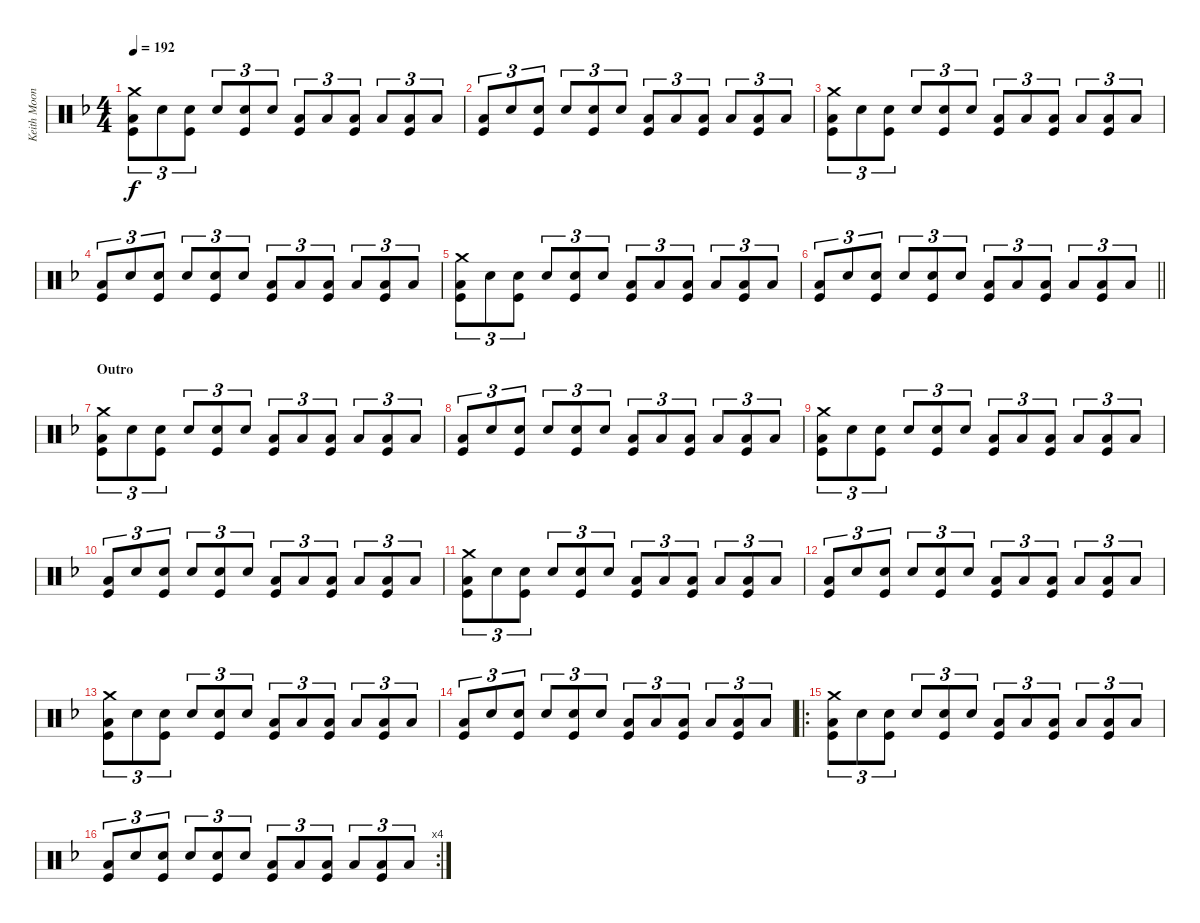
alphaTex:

\track ("Keith Moon - Drums" "Keith Moon") {instrument percussion}
\staff {score}
\articulation defaults
\ts (4 4)
\tempo 192
\clef neutral
\ks f
("Crash medium (hit)" "Low Floor Tom (hit)" "Kick (hit)").8{tu (3 2) dy f} "Electric Snare (hit)".8{tu (3 2)} ("Electric Snare (hit)" "Kick (hit)").8{tu (3 2)} "Electric Snare (hit)".8{tu (3 2)} ("Electric Snare (hit)" "Kick (hit)").8{tu (3 2)} "Electric Snare (hit)".8{tu (3 2)} ("Low Floor Tom (hit)" "Kick (hit)").8{tu (3 2)} "Low Floor Tom (hit)".8{tu (3 2)} ("Low Floor Tom (hit)" "Kick (hit)").8{tu (3 2)} "Low Floor Tom (hit)".8{tu (3 2)} ("Low Floor Tom (hit)" "Kick (hit)").8{tu (3 2)} "Low Floor Tom (hit)".8{tu (3 2)} |
("Low Floor Tom (hit)" "Kick (hit)").8{tu (3 2)} "Electric Snare (hit)".8{tu (3 2)} ("Electric Snare (hit)" "Kick (hit)").8{tu (3 2)} "Electric Snare (hit)".8{tu (3 2)} ("Electric Snare (hit)" "Kick (hit)").8{tu (3 2)} "Electric Snare (hit)".8{tu (3 2)} ("Low Floor Tom (hit)" "Kick (hit)").8{tu (3 2)} "Low Floor Tom (hit)".8{tu (3 2)} ("Low Floor Tom (hit)" "Kick (hit)").8{tu (3 2)} "Low Floor Tom (hit)".8{tu (3 2)} ("Low Floor Tom (hit)" "Kick (hit)").8{tu (3 2)} "Low Floor Tom (hit)".8{tu (3 2)} |
("Crash medium (hit)" "Low Floor Tom (hit)" "Kick (hit)").8{tu (3 2)} "Electric Snare (hit)".8{tu (3 2)} ("Electric Snare (hit)" "Kick (hit)").8{tu (3 2)} "Electric Snare (hit)".8{tu (3 2)} ("Electric Snare (hit)" "Kick (hit)").8{tu (3 2)} "Electric Snare (hit)".8{tu (3 2)} ("Low Floor Tom (hit)" "Kick (hit)").8{tu (3 2)} "Low Floor Tom (hit)".8{tu (3 2)} ("Low Floor Tom (hit)" "Kick (hit)").8{tu (3 2)} "Low Floor Tom (hit)".8{tu (3 2)} ("Low Floor Tom (hit)" "Kick (hit)").8{tu (3 2)} "Low Floor Tom (hit)".8{tu (3 2)} |
("Low Floor Tom (hit)" "Kick (hit)").8{tu (3 2)} "Electric Snare (hit)".8{tu (3 2)} ("Electric Snare (hit)" "Kick (hit)").8{tu (3 2)} "Electric Snare (hit)".8{tu (3 2)} ("Electric Snare (hit)" "Kick (hit)").8{tu (3 2)} "Electric Snare (hit)".8{tu (3 2)} ("Low Floor Tom (hit)" "Kick (hit)").8{tu (3 2)} "Low Floor Tom (hit)".8{tu (3 2)} ("Low Floor Tom (hit)" "Kick (hit)").8{tu (3 2)} "Low Floor Tom (hit)".8{tu (3 2)} ("Low Floor Tom (hit)" "Kick (hit)").8{tu (3 2)} "Low Floor Tom (hit)".8{tu (3 2)} |
("Crash medium (hit)" "Low Floor Tom (hit)" "Kick (hit)").8{tu (3 2)} "Electric Snare (hit)".8{tu (3 2)} ("Electric Snare (hit)" "Kick (hit)").8{tu (3 2)} "Electric Snare (hit)".8{tu (3 2)} ("Electric Snare (hit)" "Kick (hit)").8{tu (3 2)} "Electric Snare (hit)".8{tu (3 2)} ("Low Floor Tom (hit)" "Kick (hit)").8{tu (3 2)} "Low Floor Tom (hit)".8{tu (3 2)} ("Low Floor Tom (hit)" "Kick (hit)").8{tu (3 2)} "Low Floor Tom (hit)".8{tu (3 2)} ("Low Floor Tom (hit)" "Kick (hit)").8{tu (3 2)} "Low Floor Tom (hit)".8{tu (3 2)} |
\barLineRight lightlight
("Low Floor Tom (hit)" "Kick (hit)").8{tu (3 2)} "Electric Snare (hit)".8{tu (3 2)} ("Electric Snare (hit)" "Kick (hit)").8{tu (3 2)} "Electric Snare (hit)".8{tu (3 2)} ("Electric Snare (hit)" "Kick (hit)").8{tu (3 2)} "Electric Snare (hit)".8{tu (3 2)} ("Low Floor Tom (hit)" "Kick (hit)").8{tu (3 2)} "Low Floor Tom (hit)".8{tu (3 2)} ("Low Floor Tom (hit)" "Kick (hit)").8{tu (3 2)} "Low Floor Tom (hit)".8{tu (3 2)} ("Low Floor Tom (hit)" "Kick (hit)").8{tu (3 2)} "Low Floor Tom (hit)".8{tu (3 2)} |
\section ("" "Outro")
("Crash medium (hit)" "Low Floor Tom (hit)" "Kick (hit)").8{tu (3 2)} "Electric Snare (hit)".8{tu (3 2)} ("Electric Snare (hit)" "Kick (hit)").8{tu (3 2)} "Electric Snare (hit)".8{tu (3 2)} ("Electric Snare (hit)" "Kick (hit)").8{tu (3 2)} "Electric Snare (hit)".8{tu (3 2)} ("Low Floor Tom (hit)" "Kick (hit)").8{tu (3 2)} "Low Floor Tom (hit)".8{tu (3 2)} ("Low Floor Tom (hit)" "Kick (hit)").8{tu (3 2)} "Low Floor Tom (hit)".8{tu (3 2)} ("Low Floor Tom (hit)" "Kick (hit)").8{tu (3 2)} "Low Floor Tom (hit)".8{tu (3 2)} |
("Low Floor Tom (hit)" "Kick (hit)").8{tu (3 2)} "Electric Snare (hit)".8{tu (3 2)} ("Electric Snare (hit)" "Kick (hit)").8{tu (3 2)} "Electric Snare (hit)".8{tu (3 2)} ("Electric Snare (hit)" "Kick (hit)").8{tu (3 2)} "Electric Snare (hit)".8{tu (3 2)} ("Low Floor Tom (hit)" "Kick (hit)").8{tu (3 2)} "Low Floor Tom (hit)".8{tu (3 2)} ("Low Floor Tom (hit)" "Kick (hit)").8{tu (3 2)} "Low Floor Tom (hit)".8{tu (3 2)} ("Low Floor Tom (hit)" "Kick (hit)").8{tu (3 2)} "Low Floor Tom (hit)".8{tu (3 2)} |
("Crash medium (hit)" "Low Floor Tom (hit)" "Kick (hit)").8{tu (3 2)} "Electric Snare (hit)".8{tu (3 2)} ("Electric Snare (hit)" "Kick (hit)").8{tu (3 2)} "Electric Snare (hit)".8{tu (3 2)} ("Electric Snare (hit)" "Kick (hit)").8{tu (3 2)} "Electric Snare (hit)".8{tu (3 2)} ("Low Floor Tom (hit)" "Kick (hit)").8{tu (3 2)} "Low Floor Tom (hit)".8{tu (3 2)} ("Low Floor Tom (hit)" "Kick (hit)").8{tu (3 2)} "Low Floor Tom (hit)".8{tu (3 2)} ("Low Floor Tom (hit)" "Kick (hit)").8{tu (3 2)} "Low Floor Tom (hit)".8{tu (3 2)} |
("Low Floor Tom (hit)" "Kick (hit)").8{tu (3 2)} "Electric Snare (hit)".8{tu (3 2)} ("Electric Snare (hit)" "Kick (hit)").8{tu (3 2)} "Electric Snare (hit)".8{tu (3 2)} ("Electric Snare (hit)" "Kick (hit)").8{tu (3 2)} "Electric Snare (hit)".8{tu (3 2)} ("Low Floor Tom (hit)" "Kick (hit)").8{tu (3 2)} "Low Floor Tom (hit)".8{tu (3 2)} ("Low Floor Tom (hit)" "Kick (hit)").8{tu (3 2)} "Low Floor Tom (hit)".8{tu (3 2)} ("Low Floor Tom (hit)" "Kick (hit)").8{tu (3 2)} "Low Floor Tom (hit)".8{tu (3 2)} |
("Crash medium (hit)" "Low Floor Tom (hit)" "Kick (hit)").8{tu (3 2)} "Electric Snare (hit)".8{tu (3 2)} ("Electric Snare (hit)" "Kick (hit)").8{tu (3 2)} "Electric Snare (hit)".8{tu (3 2)} ("Electric Snare (hit)" "Kick (hit)").8{tu (3 2)} "Electric Snare (hit)".8{tu (3 2)} ("Low Floor Tom (hit)" "Kick (hit)").8{tu (3 2)} "Low Floor Tom (hit)".8{tu (3 2)} ("Low Floor Tom (hit)" "Kick (hit)").8{tu (3 2)} "Low Floor Tom (hit)".8{tu (3 2)} ("Low Floor Tom (hit)" "Kick (hit)").8{tu (3 2)} "Low Floor Tom (hit)".8{tu (3 2)} |
("Low Floor Tom (hit)" "Kick (hit)").8{tu (3 2)} "Electric Snare (hit)".8{tu (3 2)} ("Electric Snare (hit)" "Kick (hit)").8{tu (3 2)} "Electric Snare (hit)".8{tu (3 2)} ("Electric Snare (hit)" "Kick (hit)").8{tu (3 2)} "Electric Snare (hit)".8{tu (3 2)} ("Low Floor Tom (hit)" "Kick (hit)").8{tu (3 2)} "Low Floor Tom (hit)".8{tu (3 2)} ("Low Floor Tom (hit)" "Kick (hit)").8{tu (3 2)} "Low Floor Tom (hit)".8{tu (3 2)} ("Low Floor Tom (hit)" "Kick (hit)").8{tu (3 2)} "Low Floor Tom (hit)".8{tu (3 2)} |
("Crash medium (hit)" "Low Floor Tom (hit)" "Kick (hit)").8{tu (3 2)} "Electric Snare (hit)".8{tu (3 2)} ("Electric Snare (hit)" "Kick (hit)").8{tu (3 2)} "Electric Snare (hit)".8{tu (3 2)} ("Electric Snare (hit)" "Kick (hit)").8{tu (3 2)} "Electric Snare (hit)".8{tu (3 2)} ("Low Floor Tom (hit)" "Kick (hit)").8{tu (3 2)} "Low Floor Tom (hit)".8{tu (3 2)} ("Low Floor Tom (hit)" "Kick (hit)").8{tu (3 2)} "Low Floor Tom (hit)".8{tu (3 2)} ("Low Floor Tom (hit)" "Kick (hit)").8{tu (3 2)} "Low Floor Tom (hit)".8{tu (3 2)} |
("Low Floor Tom (hit)" "Kick (hit)").8{tu (3 2)} "Electric Snare (hit)".8{tu (3 2)} ("Electric Snare (hit)" "Kick (hit)").8{tu (3 2)} "Electric Snare (hit)".8{tu (3 2)} ("Electric Snare (hit)" "Kick (hit)").8{tu (3 2)} "Electric Snare (hit)".8{tu (3 2)} ("Low Floor Tom (hit)" "Kick (hit)").8{tu (3 2)} "Low Floor Tom (hit)".8{tu (3 2)} ("Low Floor Tom (hit)" "Kick (hit)").8{tu (3 2)} "Low Floor Tom (hit)".8{tu (3 2)} ("Low Floor Tom (hit)" "Kick (hit)").8{tu (3 2)} "Low Floor Tom (hit)".8{tu (3 2)} |
\ro
("Crash medium (hit)" "Low Floor Tom (hit)" "Kick (hit)").8{tu (3 2)} "Electric Snare (hit)".8{tu (3 2)} ("Electric Snare (hit)" "Kick (hit)").8{tu (3 2)} "Electric Snare (hit)".8{tu (3 2)} ("Electric Snare (hit)" "Kick (hit)").8{tu (3 2)} "Electric Snare (hit)".8{tu (3 2)} ("Low Floor Tom (hit)" "Kick (hit)").8{tu (3 2)} "Low Floor Tom (hit)".8{tu (3 2)} ("Low Floor Tom (hit)" "Kick (hit)").8{tu (3 2)} "Low Floor Tom (hit)".8{tu (3 2)} ("Low Floor Tom (hit)" "Kick (hit)").8{tu (3 2)} "Low Floor Tom (hit)".8{tu (3 2)} |
\rc 4
("Low Floor Tom (hit)" "Kick (hit)").8{tu (3 2)} "Electric Snare (hit)".8{tu (3 2)} ("Electric Snare (hit)" "Kick (hit)").8{tu (3 2)} "Electric Snare (hit)".8{tu (3 2)} ("Electric Snare (hit)" "Kick (hit)").8{tu (3 2)} "Electric Snare (hit)".8{tu (3 2)} ("Low Floor Tom (hit)" "Kick (hit)").8{tu (3 2)} "Low Floor Tom (hit)".8{tu (3 2)} ("Low Floor Tom (hit)" "Kick (hit)").8{tu (3 2)} "Low Floor Tom (hit)".8{tu (3 2)} ("Low Floor Tom (hit)" "Kick (hit)").8{tu (3 2)} "Low Floor Tom (hit)".8{tu (3 2)}
